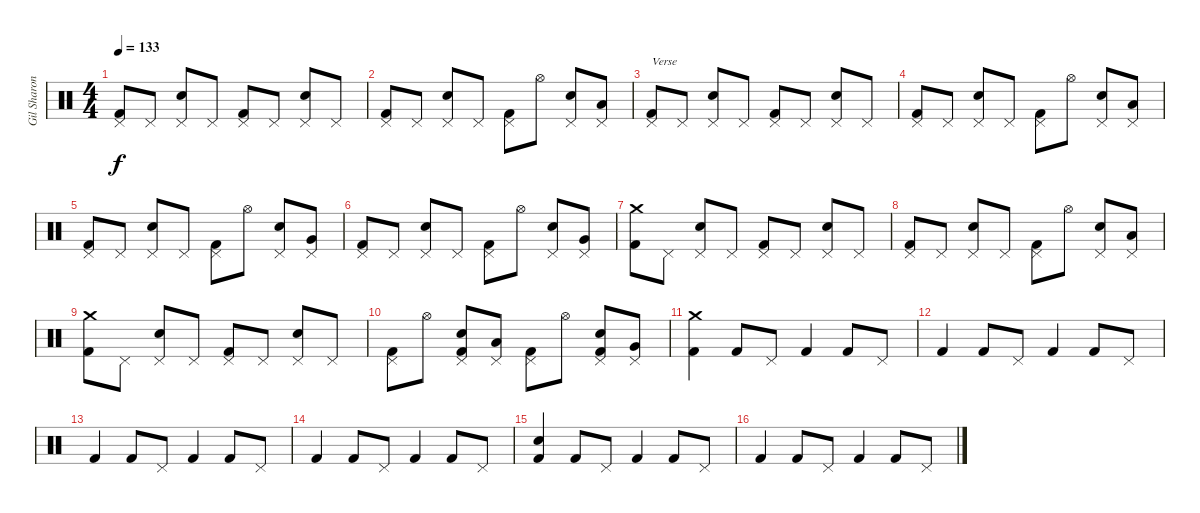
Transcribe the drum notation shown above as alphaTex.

\track ("Gil Sharone" "Gil Sharon") {instrument percussion}
\staff {score}
\articulation defaults
\ts (4 4)
\tempo 133
\clef neutral
\ks c
("Pedal Hi-Hat (hit)" "Kick (hit) 2").8{dy f} "Pedal Hi-Hat (hit)".8 ("Pedal Hi-Hat (hit)" "Electric Snare (hit)").8 "Pedal Hi-Hat (hit)".8 ("Pedal Hi-Hat (hit)" "Kick (hit) 2").8 "Pedal Hi-Hat (hit)".8 ("Pedal Hi-Hat (hit)" "Electric Snare (hit)").8 "Pedal Hi-Hat (hit)".8 |
("Pedal Hi-Hat (hit)" "Kick (hit) 2").8 "Pedal Hi-Hat (hit)".8 ("Pedal Hi-Hat (hit)" "Electric Snare (hit)").8 "Pedal Hi-Hat (hit)".8 ("Pedal Hi-Hat (hit)" "Kick (hit) 2").8 "Hi-Hat (open)".8 ("Pedal Hi-Hat (hit)" "Electric Snare (hit)").8 ("Pedal Hi-Hat (hit)" "Low Floor Tom (hit)").8 |
("Pedal Hi-Hat (hit)" "Kick (hit) 2").8{txt "Verse"} "Pedal Hi-Hat (hit)".8 ("Pedal Hi-Hat (hit)" "Electric Snare (hit)").8 "Pedal Hi-Hat (hit)".8 ("Pedal Hi-Hat (hit)" "Kick (hit) 2").8 "Pedal Hi-Hat (hit)".8 ("Pedal Hi-Hat (hit)" "Electric Snare (hit)").8 "Pedal Hi-Hat (hit)".8 |
("Pedal Hi-Hat (hit)" "Kick (hit) 2").8 "Pedal Hi-Hat (hit)".8 ("Pedal Hi-Hat (hit)" "Electric Snare (hit)").8 "Pedal Hi-Hat (hit)".8 ("Pedal Hi-Hat (hit)" "Kick (hit) 2").8 "Hi-Hat (open)".8 ("Pedal Hi-Hat (hit)" "Electric Snare (hit)").8 ("Pedal Hi-Hat (hit)" "Low Floor Tom (hit)").8 |
("Pedal Hi-Hat (hit)" "Kick (hit) 2").8 "Pedal Hi-Hat (hit)".8 ("Pedal Hi-Hat (hit)" "Electric Snare (hit)").8 "Pedal Hi-Hat (hit)".8 ("Pedal Hi-Hat (hit)" "Kick (hit) 2").8 "Hi-Hat (open)".8 ("Pedal Hi-Hat (hit)" "Electric Snare (hit)").8 ("Pedal Hi-Hat (hit)" "Very Low Tom (hit)").8 |
("Pedal Hi-Hat (hit)" "Kick (hit) 2").8 "Pedal Hi-Hat (hit)".8 ("Pedal Hi-Hat (hit)" "Electric Snare (hit)").8 "Pedal Hi-Hat (hit)".8 ("Pedal Hi-Hat (hit)" "Kick (hit) 2").8 "Hi-Hat (open)".8 ("Pedal Hi-Hat (hit)" "Electric Snare (hit)").8 ("Pedal Hi-Hat (hit)" "Very Low Tom (hit)").8 |
("Crash medium (hit)" "Kick (hit) 2").8 "Pedal Hi-Hat (hit)".8 ("Pedal Hi-Hat (hit)" "Electric Snare (hit)").8 "Pedal Hi-Hat (hit)".8 ("Pedal Hi-Hat (hit)" "Kick (hit) 2").8 "Pedal Hi-Hat (hit)".8 ("Pedal Hi-Hat (hit)" "Electric Snare (hit)").8 "Pedal Hi-Hat (hit)".8 |
("Pedal Hi-Hat (hit)" "Kick (hit) 2").8 "Pedal Hi-Hat (hit)".8 ("Pedal Hi-Hat (hit)" "Electric Snare (hit)").8 "Pedal Hi-Hat (hit)".8 ("Pedal Hi-Hat (hit)" "Kick (hit) 2").8 "Hi-Hat (open)".8 ("Pedal Hi-Hat (hit)" "Electric Snare (hit)").8 ("Pedal Hi-Hat (hit)" "Low Floor Tom (hit)").8 |
("Crash medium (hit)" "Kick (hit) 2").8 "Pedal Hi-Hat (hit)".8 ("Pedal Hi-Hat (hit)" "Electric Snare (hit)").8 "Pedal Hi-Hat (hit)".8 ("Pedal Hi-Hat (hit)" "Kick (hit) 2").8 "Pedal Hi-Hat (hit)".8 ("Pedal Hi-Hat (hit)" "Electric Snare (hit)").8 "Pedal Hi-Hat (hit)".8 |
("Pedal Hi-Hat (hit)" "Kick (hit) 2").8 "Hi-Hat (open)".8 ("Pedal Hi-Hat (hit)" "Electric Snare (hit)" "Kick (hit) 2").8 ("Pedal Hi-Hat (hit)" "Low Floor Tom (hit)").8 ("Pedal Hi-Hat (hit)" "Kick (hit) 2").8 "Hi-Hat (open)".8 ("Pedal Hi-Hat (hit)" "Electric Snare (hit)" "Kick (hit) 2").8 ("Pedal Hi-Hat (hit)" "Very Low Tom (hit)").8 |
("Crash medium (hit)" "Kick (hit) 2").4 "Kick (hit) 2".8 "Pedal Hi-Hat (hit)".8 "Kick (hit) 2".4 "Kick (hit) 2".8 "Pedal Hi-Hat (hit)".8 |
"Kick (hit) 2".4 "Kick (hit) 2".8 "Pedal Hi-Hat (hit)".8 "Kick (hit) 2".4 "Kick (hit) 2".8 "Pedal Hi-Hat (hit)".8 |
"Kick (hit) 2".4 "Kick (hit) 2".8 "Pedal Hi-Hat (hit)".8 "Kick (hit) 2".4 "Kick (hit) 2".8 "Pedal Hi-Hat (hit)".8 |
"Kick (hit) 2".4 "Kick (hit) 2".8 "Pedal Hi-Hat (hit)".8 "Kick (hit) 2".4 "Kick (hit) 2".8 "Pedal Hi-Hat (hit)".8 |
("Electric Snare (hit)" "Kick (hit) 2").4 "Kick (hit) 2".8 "Pedal Hi-Hat (hit)".8 "Kick (hit) 2".4 "Kick (hit) 2".8 "Pedal Hi-Hat (hit)".8 |
"Kick (hit) 2".4 "Kick (hit) 2".8 "Pedal Hi-Hat (hit)".8 "Kick (hit) 2".4 "Kick (hit) 2".8 "Pedal Hi-Hat (hit)".8
